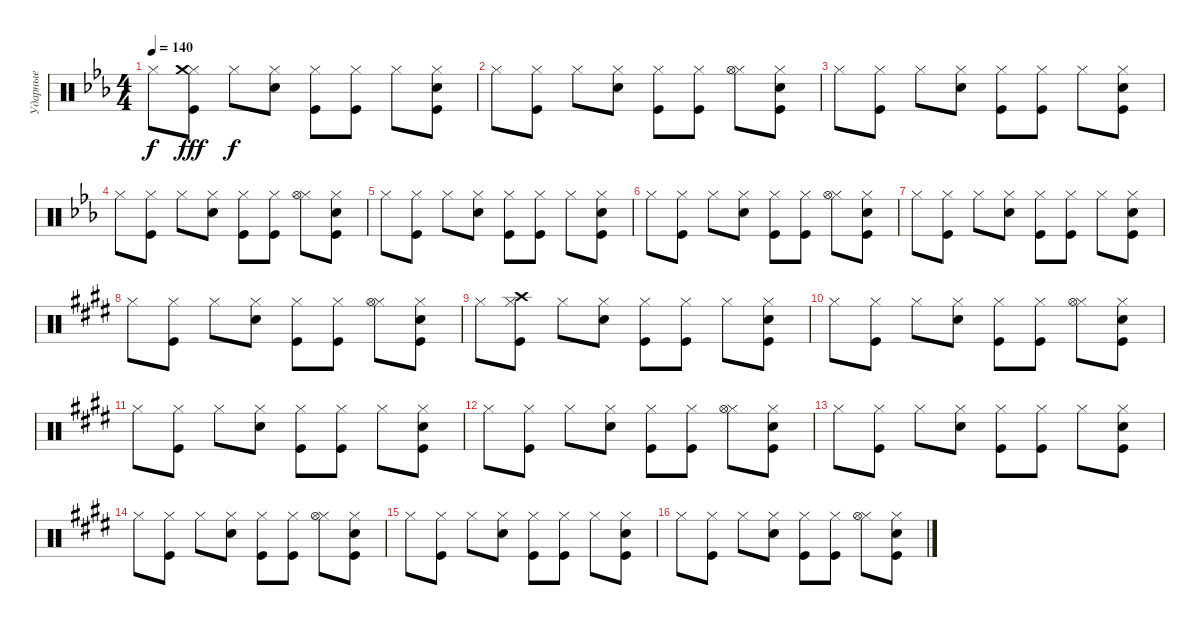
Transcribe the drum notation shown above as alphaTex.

\track ("Ударные" "Ударные") {instrument percussion}
\staff {score}
\articulation defaults
\ts (4 4)
\tempo 140
\clef neutral
\ks cminor "Hi-Hat (closed)".8{dy f}
("Hi-Hat (closed)" "Crash medium (hit)" "Kick (hit)").8{dy fff} "Hi-Hat (closed)".8{dy f} ("Hi-Hat (closed)" "Snare (hit) 2").8 ("Hi-Hat (closed)" "Kick (hit)").8 ("Hi-Hat (closed)" "Kick (hit)").8 "Hi-Hat (closed)".8 ("Hi-Hat (closed)" "Kick (hit)" "Snare (hit) 2").8 |
"Hi-Hat (closed)".8 ("Hi-Hat (closed)" "Kick (hit)").8 "Hi-Hat (closed)".8 ("Hi-Hat (closed)" "Snare (hit) 2").8 ("Hi-Hat (closed)" "Kick (hit)").8 ("Hi-Hat (closed)" "Kick (hit)").8 ("Hi-Hat (closed)" "Hi-Hat (open)").8 ("Hi-Hat (closed)" "Kick (hit)" "Snare (hit) 2").8 |
"Hi-Hat (closed)".8 ("Hi-Hat (closed)" "Kick (hit)").8 "Hi-Hat (closed)".8 ("Hi-Hat (closed)" "Snare (hit) 2").8 ("Hi-Hat (closed)" "Kick (hit)").8 ("Hi-Hat (closed)" "Kick (hit)").8 "Hi-Hat (closed)".8 ("Hi-Hat (closed)" "Kick (hit)" "Snare (hit) 2").8 |
"Hi-Hat (closed)".8 ("Hi-Hat (closed)" "Kick (hit)").8 "Hi-Hat (closed)".8 ("Hi-Hat (closed)" "Snare (hit) 2").8 ("Hi-Hat (closed)" "Kick (hit)").8 ("Hi-Hat (closed)" "Kick (hit)").8 ("Hi-Hat (closed)" "Hi-Hat (open)").8 ("Hi-Hat (closed)" "Kick (hit)" "Snare (hit) 2").8 |
"Hi-Hat (closed)".8 ("Hi-Hat (closed)" "Kick (hit)").8 "Hi-Hat (closed)".8 ("Hi-Hat (closed)" "Snare (hit) 2").8 ("Hi-Hat (closed)" "Kick (hit)").8 ("Hi-Hat (closed)" "Kick (hit)").8 "Hi-Hat (closed)".8 ("Hi-Hat (closed)" "Kick (hit)" "Snare (hit) 2").8 |
"Hi-Hat (closed)".8 ("Hi-Hat (closed)" "Kick (hit)").8 "Hi-Hat (closed)".8 ("Hi-Hat (closed)" "Snare (hit) 2").8 ("Hi-Hat (closed)" "Kick (hit)").8 ("Hi-Hat (closed)" "Kick (hit)").8 ("Hi-Hat (closed)" "Hi-Hat (open)").8 ("Hi-Hat (closed)" "Kick (hit)" "Snare (hit) 2").8 |
"Hi-Hat (closed)".8 ("Hi-Hat (closed)" "Kick (hit)").8 "Hi-Hat (closed)".8 ("Hi-Hat (closed)" "Snare (hit) 2").8 ("Hi-Hat (closed)" "Kick (hit)").8 ("Hi-Hat (closed)" "Kick (hit)").8 "Hi-Hat (closed)".8 ("Hi-Hat (closed)" "Kick (hit)" "Snare (hit) 2").8 |
\ks c#minor "Hi-Hat (closed)".8
("Hi-Hat (closed)" "Kick (hit)").8 "Hi-Hat (closed)".8 ("Hi-Hat (closed)" "Snare (hit) 2").8 ("Hi-Hat (closed)" "Kick (hit)").8 ("Hi-Hat (closed)" "Kick (hit)").8 ("Hi-Hat (closed)" "Hi-Hat (open)").8 ("Hi-Hat (closed)" "Kick (hit)" "Snare (hit) 2").8 |
"Hi-Hat (closed)".8 ("Hi-Hat (closed)" "Crash high (hit)" "Kick (hit)").8 "Hi-Hat (closed)".8 ("Hi-Hat (closed)" "Snare (hit) 2").8 ("Hi-Hat (closed)" "Kick (hit)").8 ("Hi-Hat (closed)" "Kick (hit)").8 "Hi-Hat (closed)".8 ("Hi-Hat (closed)" "Kick (hit)" "Snare (hit) 2").8 |
"Hi-Hat (closed)".8 ("Hi-Hat (closed)" "Kick (hit)").8 "Hi-Hat (closed)".8 ("Hi-Hat (closed)" "Snare (hit) 2").8 ("Hi-Hat (closed)" "Kick (hit)").8 ("Hi-Hat (closed)" "Kick (hit)").8 ("Hi-Hat (closed)" "Hi-Hat (open)").8 ("Hi-Hat (closed)" "Kick (hit)" "Snare (hit) 2").8 |
"Hi-Hat (closed)".8 ("Hi-Hat (closed)" "Kick (hit)").8 "Hi-Hat (closed)".8 ("Hi-Hat (closed)" "Snare (hit) 2").8 ("Hi-Hat (closed)" "Kick (hit)").8 ("Hi-Hat (closed)" "Kick (hit)").8 "Hi-Hat (closed)".8 ("Hi-Hat (closed)" "Kick (hit)" "Snare (hit) 2").8 |
"Hi-Hat (closed)".8 ("Hi-Hat (closed)" "Kick (hit)").8 "Hi-Hat (closed)".8 ("Hi-Hat (closed)" "Snare (hit) 2").8 ("Hi-Hat (closed)" "Kick (hit)").8 ("Hi-Hat (closed)" "Kick (hit)").8 ("Hi-Hat (closed)" "Hi-Hat (open)").8 ("Hi-Hat (closed)" "Kick (hit)" "Snare (hit) 2").8 |
"Hi-Hat (closed)".8 ("Hi-Hat (closed)" "Kick (hit)").8 "Hi-Hat (closed)".8 ("Hi-Hat (closed)" "Snare (hit) 2").8 ("Hi-Hat (closed)" "Kick (hit)").8 ("Hi-Hat (closed)" "Kick (hit)").8 "Hi-Hat (closed)".8 ("Hi-Hat (closed)" "Kick (hit)" "Snare (hit) 2").8 |
"Hi-Hat (closed)".8 ("Hi-Hat (closed)" "Kick (hit)").8 "Hi-Hat (closed)".8 ("Hi-Hat (closed)" "Snare (hit) 2").8 ("Hi-Hat (closed)" "Kick (hit)").8 ("Hi-Hat (closed)" "Kick (hit)").8 ("Hi-Hat (closed)" "Hi-Hat (open)").8 ("Hi-Hat (closed)" "Kick (hit)" "Snare (hit) 2").8 |
"Hi-Hat (closed)".8 ("Hi-Hat (closed)" "Kick (hit)").8 "Hi-Hat (closed)".8 ("Hi-Hat (closed)" "Snare (hit) 2").8 ("Hi-Hat (closed)" "Kick (hit)").8 ("Hi-Hat (closed)" "Kick (hit)").8 "Hi-Hat (closed)".8 ("Hi-Hat (closed)" "Kick (hit)" "Snare (hit) 2").8 |
"Hi-Hat (closed)".8 ("Hi-Hat (closed)" "Kick (hit)").8 "Hi-Hat (closed)".8 ("Hi-Hat (closed)" "Snare (hit) 2").8 ("Hi-Hat (closed)" "Kick (hit)").8 ("Hi-Hat (closed)" "Kick (hit)").8 ("Hi-Hat (closed)" "Hi-Hat (open)").8 ("Hi-Hat (closed)" "Kick (hit)" "Snare (hit) 2").8
